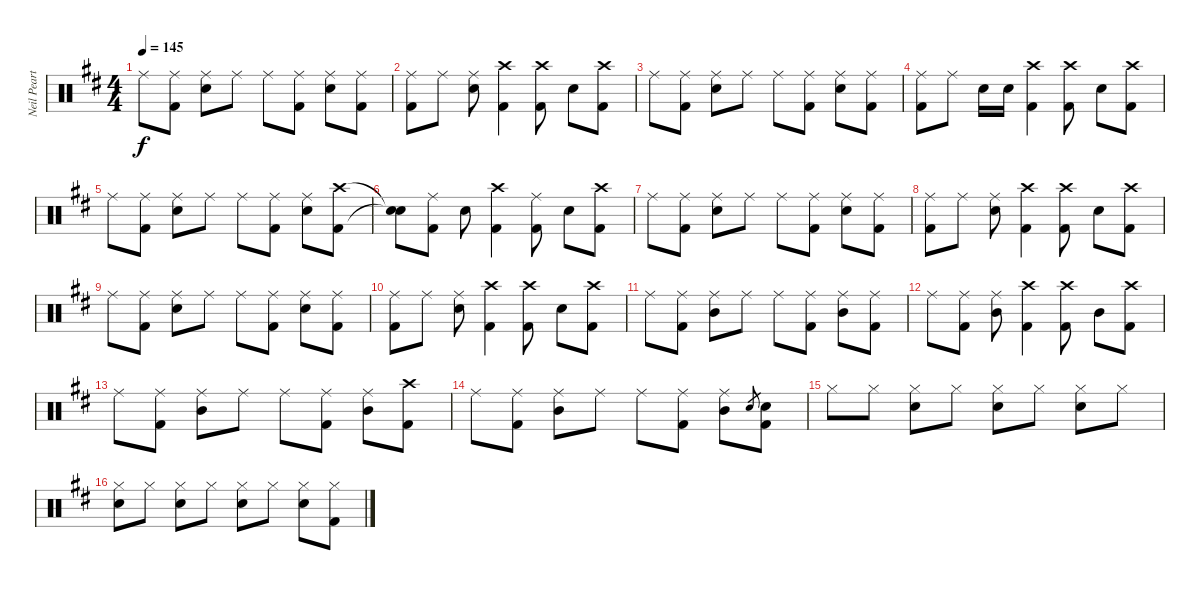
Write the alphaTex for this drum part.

\track ("Neil Peart" "Neil Peart") {instrument percussion}
\staff {score}
\articulation defaults
\ts (4 4)
\tempo 145
\clef neutral
\ks d "Ride (middle)".8{dy f}
("Ride (middle)" "Kick (hit) 2").8 ("Ride (middle)" "Snare (hit) 2").8 "Ride (middle)".8 "Ride (middle)".8 ("Ride (middle)" "Kick (hit) 2").8 ("Ride (middle)" "Snare (hit) 2").8 ("Ride (middle)" "Kick (hit) 2").8 |
("Ride (middle)" "Kick (hit) 2").8 "Ride (middle)".8 ("Ride (middle)" "Snare (hit) 2").8 ("Crash high (hit)" "Kick (hit) 2").4 ("Crash high (hit)" "Kick (hit) 2").8 "Snare (hit) 2".8 ("Crash high (hit)" "Kick (hit) 2").8 |
"Ride (middle)".8 ("Ride (middle)" "Kick (hit) 2").8 ("Ride (middle)" "Snare (hit) 2").8 "Ride (middle)".8 "Ride (middle)".8 ("Ride (middle)" "Kick (hit) 2").8 ("Ride (middle)" "Snare (hit) 2").8 ("Ride (middle)" "Kick (hit) 2").8 |
("Ride (middle)" "Kick (hit) 2").8 "Ride (middle)".8 "Snare (hit) 2".16 "Snare (hit) 2".16 ("Crash high (hit)" "Kick (hit) 2").4 ("Crash high (hit)" "Kick (hit) 2").8 "Snare (hit) 2".8 ("Crash high (hit)" "Kick (hit) 2").8 |
"Ride (middle)".8 ("Ride (middle)" "Kick (hit) 2").8 ("Ride (middle)" "Snare (hit) 2").8 "Ride (middle)".8 "Ride (middle)".8 ("Ride (middle)" "Kick (hit) 2").8 ("Ride (middle)" "Snare (hit) 2").8 ("Crash high (hit)" "Kick (hit) 2").8 |
("Snare (hit)"{t} "Snare (hit)"{t}).8 ("Ride (middle)" "Kick (hit) 2").8 "Snare (hit) 2".8 ("Crash high (hit)" "Kick (hit) 2").4 ("Ride (middle)" "Kick (hit) 2").8 "Snare (hit) 2".8 ("Crash high (hit)" "Kick (hit) 2").8 |
"Ride (middle)".8 ("Ride (middle)" "Kick (hit) 2").8 ("Ride (middle)" "Snare (hit) 2").8 "Ride (middle)".8 "Ride (middle)".8 ("Ride (middle)" "Kick (hit) 2").8 ("Ride (middle)" "Snare (hit) 2").8 ("Ride (middle)" "Kick (hit) 2").8 |
("Ride (middle)" "Kick (hit) 2").8 "Ride (middle)".8 ("Ride (middle)" "Snare (hit) 2").8 ("Crash high (hit)" "Kick (hit) 2").4 ("Crash high (hit)" "Kick (hit) 2").8 "Snare (hit) 2".8 ("Crash high (hit)" "Kick (hit) 2").8 |
"Ride (middle)".8 ("Ride (middle)" "Kick (hit) 2").8 ("Ride (middle)" "Snare (hit) 2").8 "Ride (middle)".8 "Ride (middle)".8 ("Ride (middle)" "Kick (hit) 2").8 ("Ride (middle)" "Snare (hit) 2").8 ("Ride (middle)" "Kick (hit) 2").8 |
("Ride (middle)" "Kick (hit) 2").8 "Ride (middle)".8 ("Ride (middle)" "Snare (hit) 2").8 ("Crash high (hit)" "Kick (hit) 2").4 ("Crash high (hit)" "Kick (hit) 2").8 "Snare (hit) 2".8 ("Crash high (hit)" "Kick (hit) 2").8 |
"Ride (middle)".8 ("Ride (middle)" "Kick (hit) 2").8 ("Ride (middle)" "Mid Tom (hit)").8 "Ride (middle)".8 "Ride (middle)".8 ("Ride (middle)" "Kick (hit) 2").8 ("Ride (middle)" "Mid Tom (hit)").8 ("Ride (middle)" "Kick (hit) 2").8 |
"Ride (middle)".8 ("Ride (middle)" "Kick (hit) 2").8 ("Ride (middle)" "Mid Tom (hit)").8 ("Crash high (hit)" "Kick (hit) 2").4 ("Crash high (hit)" "Kick (hit) 2").8 "Mid Tom (hit)".8 ("Crash high (hit)" "Kick (hit) 2").8 |
"Ride (middle)".8 ("Ride (middle)" "Kick (hit) 2").8 ("Ride (middle)" "Mid Tom (hit)").8 "Ride (middle)".8 "Ride (middle)".8 ("Ride (middle)" "Kick (hit) 2").8 ("Ride (middle)" "Mid Tom (hit)").8 ("Crash high (hit)" "Kick (hit) 2").8 |
"Ride (middle)".8 ("Ride (middle)" "Kick (hit) 2").8 ("Ride (middle)" "Mid Tom (hit)").8 "Ride (middle)".8 "Ride (middle)".8 ("Ride (middle)" "Kick (hit) 2").8 ("Ride (middle)" "Mid Tom (hit)").8 "Snare (hit) 2".8{gr} ("Snare (hit) 2" "Kick (hit) 2").8 |
"Hi-Hat (closed)".8 "Hi-Hat (closed)".8 ("Hi-Hat (closed)" "Snare (hit) 2").8 "Hi-Hat (closed)".8 ("Hi-Hat (closed)" "Snare (hit) 2").8 "Hi-Hat (closed)".8 ("Hi-Hat (closed)" "Snare (hit) 2").8 "Hi-Hat (closed)".8 |
("Hi-Hat (closed)" "Snare (hit) 2").8 "Hi-Hat (closed)".8 ("Hi-Hat (closed)" "Snare (hit) 2").8 "Hi-Hat (closed)".8 ("Hi-Hat (closed)" "Snare (hit) 2").8 "Hi-Hat (closed)".8 ("Hi-Hat (closed)" "Snare (hit) 2").8 ("Hi-Hat (closed)" "Kick (hit) 2").8
